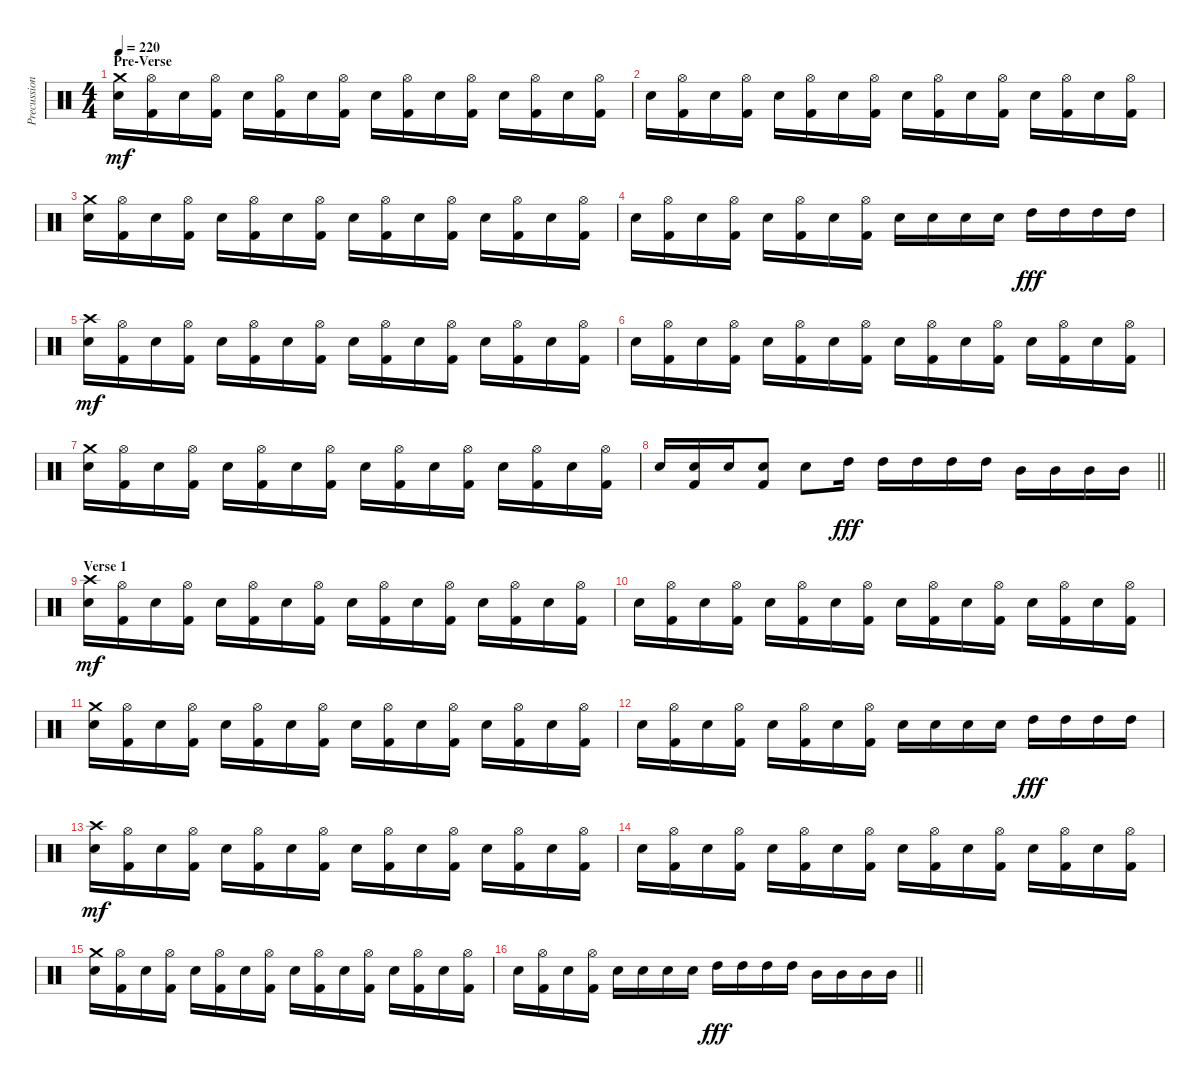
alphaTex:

\track ("Precussion" "Precussion") {instrument percussion}
\staff {score}
\articulation defaults
\ts (4 4)
\section ("" "Pre-Verse")
\tempo 220
\clef neutral
\ks c
("Crash medium (hit)" "Electric Snare (hit)").16{dy mf} ("Hi-Hat (open)" "Kick (hit) 2").16 "Electric Snare (hit)".16 ("Hi-Hat (open)" "Kick (hit) 2").16 "Electric Snare (hit)".16 ("Hi-Hat (open)" "Kick (hit) 2").16 "Electric Snare (hit)".16 ("Hi-Hat (open)" "Kick (hit) 2").16 "Electric Snare (hit)".16 ("Hi-Hat (open)" "Kick (hit) 2").16 "Electric Snare (hit)".16 ("Hi-Hat (open)" "Kick (hit) 2").16 "Electric Snare (hit)".16 ("Hi-Hat (open)" "Kick (hit) 2").16 "Electric Snare (hit)".16 ("Hi-Hat (open)" "Kick (hit) 2").16 |
"Electric Snare (hit)".16 ("Hi-Hat (open)" "Kick (hit) 2").16 "Electric Snare (hit)".16 ("Hi-Hat (open)" "Kick (hit) 2").16 "Electric Snare (hit)".16 ("Hi-Hat (open)" "Kick (hit) 2").16 "Electric Snare (hit)".16 ("Hi-Hat (open)" "Kick (hit) 2").16 "Electric Snare (hit)".16 ("Hi-Hat (open)" "Kick (hit) 2").16 "Electric Snare (hit)".16 ("Hi-Hat (open)" "Kick (hit) 2").16 "Electric Snare (hit)".16 ("Hi-Hat (open)" "Kick (hit) 2").16 "Electric Snare (hit)".16 ("Hi-Hat (open)" "Kick (hit) 2").16 |
("Crash medium (hit)" "Electric Snare (hit)").16 ("Hi-Hat (open)" "Kick (hit) 2").16 "Electric Snare (hit)".16 ("Hi-Hat (open)" "Kick (hit) 2").16 "Electric Snare (hit)".16 ("Hi-Hat (open)" "Kick (hit) 2").16 "Electric Snare (hit)".16 ("Hi-Hat (open)" "Kick (hit) 2").16 "Electric Snare (hit)".16 ("Hi-Hat (open)" "Kick (hit) 2").16 "Electric Snare (hit)".16 ("Hi-Hat (open)" "Kick (hit) 2").16 "Electric Snare (hit)".16 ("Hi-Hat (open)" "Kick (hit) 2").16 "Electric Snare (hit)".16 ("Hi-Hat (open)" "Kick (hit) 2").16 |
"Electric Snare (hit)".16 ("Hi-Hat (open)" "Kick (hit) 2").16 "Electric Snare (hit)".16 ("Hi-Hat (open)" "Kick (hit) 2").16 "Electric Snare (hit)".16 ("Hi-Hat (open)" "Kick (hit) 2").16 "Electric Snare (hit)".16 ("Hi-Hat (open)" "Kick (hit) 2").16 "Electric Snare (hit)".16 "Electric Snare (hit)".16 "Electric Snare (hit)".16 "Electric Snare (hit)".16 "High Tom (hit)".16{dy fff} "High Tom (hit)".16 "High Tom (hit)".16 "High Tom (hit)".16 |
("Crash high (hit)" "Electric Snare (hit)").16{dy mf} ("Hi-Hat (open)" "Kick (hit) 2").16 "Electric Snare (hit)".16 ("Hi-Hat (open)" "Kick (hit) 2").16 "Electric Snare (hit)".16 ("Hi-Hat (open)" "Kick (hit) 2").16 "Electric Snare (hit)".16 ("Hi-Hat (open)" "Kick (hit) 2").16 "Electric Snare (hit)".16 ("Hi-Hat (open)" "Kick (hit) 2").16 "Electric Snare (hit)".16 ("Hi-Hat (open)" "Kick (hit) 2").16 "Electric Snare (hit)".16 ("Hi-Hat (open)" "Kick (hit) 2").16 "Electric Snare (hit)".16 ("Hi-Hat (open)" "Kick (hit) 2").16 |
"Electric Snare (hit)".16 ("Hi-Hat (open)" "Kick (hit) 2").16 "Electric Snare (hit)".16 ("Hi-Hat (open)" "Kick (hit) 2").16 "Electric Snare (hit)".16 ("Hi-Hat (open)" "Kick (hit) 2").16 "Electric Snare (hit)".16 ("Hi-Hat (open)" "Kick (hit) 2").16 "Electric Snare (hit)".16 ("Hi-Hat (open)" "Kick (hit) 2").16 "Electric Snare (hit)".16 ("Hi-Hat (open)" "Kick (hit) 2").16 "Electric Snare (hit)".16 ("Hi-Hat (open)" "Kick (hit) 2").16 "Electric Snare (hit)".16 ("Hi-Hat (open)" "Kick (hit) 2").16 |
("Crash medium (hit)" "Electric Snare (hit)").16 ("Hi-Hat (open)" "Kick (hit) 2").16 "Electric Snare (hit)".16 ("Hi-Hat (open)" "Kick (hit) 2").16 "Electric Snare (hit)".16 ("Hi-Hat (open)" "Kick (hit) 2").16 "Electric Snare (hit)".16 ("Hi-Hat (open)" "Kick (hit) 2").16 "Electric Snare (hit)".16 ("Hi-Hat (open)" "Kick (hit) 2").16 "Electric Snare (hit)".16 ("Hi-Hat (open)" "Kick (hit) 2").16 "Electric Snare (hit)".16 ("Hi-Hat (open)" "Kick (hit) 2").16 "Electric Snare (hit)".16 ("Hi-Hat (open)" "Kick (hit) 2").16 |
\barLineRight lightlight "Electric Snare (hit)".16
("Electric Snare (hit)" "Kick (hit) 2").16 "Electric Snare (hit)".16 ("Electric Snare (hit)" "Kick (hit) 2").8 "Electric Snare (hit)".8 "High Tom (hit)".16{dy fff} "High Tom (hit)".16 "High Tom (hit)".16 "High Tom (hit)".16 "High Tom (hit)".16 "Mid Tom (hit)".16 "Mid Tom (hit)".16 "Mid Tom (hit)".16 "Mid Tom (hit)".16 |
\section ("" "Verse 1")
("Crash high (hit)" "Electric Snare (hit)").16{dy mf} ("Hi-Hat (open)" "Kick (hit) 2").16 "Electric Snare (hit)".16 ("Hi-Hat (open)" "Kick (hit) 2").16 "Electric Snare (hit)".16 ("Hi-Hat (open)" "Kick (hit) 2").16 "Electric Snare (hit)".16 ("Hi-Hat (open)" "Kick (hit) 2").16 "Electric Snare (hit)".16 ("Hi-Hat (open)" "Kick (hit) 2").16 "Electric Snare (hit)".16 ("Hi-Hat (open)" "Kick (hit) 2").16 "Electric Snare (hit)".16 ("Hi-Hat (open)" "Kick (hit) 2").16 "Electric Snare (hit)".16 ("Hi-Hat (open)" "Kick (hit) 2").16 |
"Electric Snare (hit)".16 ("Hi-Hat (open)" "Kick (hit) 2").16 "Electric Snare (hit)".16 ("Hi-Hat (open)" "Kick (hit) 2").16 "Electric Snare (hit)".16 ("Hi-Hat (open)" "Kick (hit) 2").16 "Electric Snare (hit)".16 ("Hi-Hat (open)" "Kick (hit) 2").16 "Electric Snare (hit)".16 ("Hi-Hat (open)" "Kick (hit) 2").16 "Electric Snare (hit)".16 ("Hi-Hat (open)" "Kick (hit) 2").16 "Electric Snare (hit)".16 ("Hi-Hat (open)" "Kick (hit) 2").16 "Electric Snare (hit)".16 ("Hi-Hat (open)" "Kick (hit) 2").16 |
("Crash medium (hit)" "Electric Snare (hit)").16 ("Hi-Hat (open)" "Kick (hit) 2").16 "Electric Snare (hit)".16 ("Hi-Hat (open)" "Kick (hit) 2").16 "Electric Snare (hit)".16 ("Hi-Hat (open)" "Kick (hit) 2").16 "Electric Snare (hit)".16 ("Hi-Hat (open)" "Kick (hit) 2").16 "Electric Snare (hit)".16 ("Hi-Hat (open)" "Kick (hit) 2").16 "Electric Snare (hit)".16 ("Hi-Hat (open)" "Kick (hit) 2").16 "Electric Snare (hit)".16 ("Hi-Hat (open)" "Kick (hit) 2").16 "Electric Snare (hit)".16 ("Hi-Hat (open)" "Kick (hit) 2").16 |
"Electric Snare (hit)".16 ("Hi-Hat (open)" "Kick (hit) 2").16 "Electric Snare (hit)".16 ("Hi-Hat (open)" "Kick (hit) 2").16 "Electric Snare (hit)".16 ("Hi-Hat (open)" "Kick (hit) 2").16 "Electric Snare (hit)".16 ("Hi-Hat (open)" "Kick (hit) 2").16 "Electric Snare (hit)".16 "Electric Snare (hit)".16 "Electric Snare (hit)".16 "Electric Snare (hit)".16 "High Tom (hit)".16{dy fff} "High Tom (hit)".16 "High Tom (hit)".16 "High Tom (hit)".16 |
("Crash high (hit)" "Electric Snare (hit)").16{dy mf} ("Hi-Hat (open)" "Kick (hit) 2").16 "Electric Snare (hit)".16 ("Hi-Hat (open)" "Kick (hit) 2").16 "Electric Snare (hit)".16 ("Hi-Hat (open)" "Kick (hit) 2").16 "Electric Snare (hit)".16 ("Hi-Hat (open)" "Kick (hit) 2").16 "Electric Snare (hit)".16 ("Hi-Hat (open)" "Kick (hit) 2").16 "Electric Snare (hit)".16 ("Hi-Hat (open)" "Kick (hit) 2").16 "Electric Snare (hit)".16 ("Hi-Hat (open)" "Kick (hit) 2").16 "Electric Snare (hit)".16 ("Hi-Hat (open)" "Kick (hit) 2").16 |
"Electric Snare (hit)".16 ("Hi-Hat (open)" "Kick (hit) 2").16 "Electric Snare (hit)".16 ("Hi-Hat (open)" "Kick (hit) 2").16 "Electric Snare (hit)".16 ("Hi-Hat (open)" "Kick (hit) 2").16 "Electric Snare (hit)".16 ("Hi-Hat (open)" "Kick (hit) 2").16 "Electric Snare (hit)".16 ("Hi-Hat (open)" "Kick (hit) 2").16 "Electric Snare (hit)".16 ("Hi-Hat (open)" "Kick (hit) 2").16 "Electric Snare (hit)".16 ("Hi-Hat (open)" "Kick (hit) 2").16 "Electric Snare (hit)".16 ("Hi-Hat (open)" "Kick (hit) 2").16 |
("Crash medium (hit)" "Electric Snare (hit)").16 ("Hi-Hat (open)" "Kick (hit) 2").16 "Electric Snare (hit)".16 ("Hi-Hat (open)" "Kick (hit) 2").16 "Electric Snare (hit)".16 ("Hi-Hat (open)" "Kick (hit) 2").16 "Electric Snare (hit)".16 ("Hi-Hat (open)" "Kick (hit) 2").16 "Electric Snare (hit)".16 ("Hi-Hat (open)" "Kick (hit) 2").16 "Electric Snare (hit)".16 ("Hi-Hat (open)" "Kick (hit) 2").16 "Electric Snare (hit)".16 ("Hi-Hat (open)" "Kick (hit) 2").16 "Electric Snare (hit)".16 ("Hi-Hat (open)" "Kick (hit) 2").16 |
\barLineRight lightlight "Electric Snare (hit)".16
("Hi-Hat (open)" "Kick (hit) 2").16 "Electric Snare (hit)".16 ("Hi-Hat (open)" "Kick (hit) 2").16 "Electric Snare (hit)".16 "Electric Snare (hit)".16 "Electric Snare (hit)".16 "Electric Snare (hit)".16 "High Tom (hit)".16{dy fff} "High Tom (hit)".16 "High Tom (hit)".16 "High Tom (hit)".16 "Mid Tom (hit)".16 "Mid Tom (hit)".16 "Mid Tom (hit)".16 "Mid Tom (hit)".16
